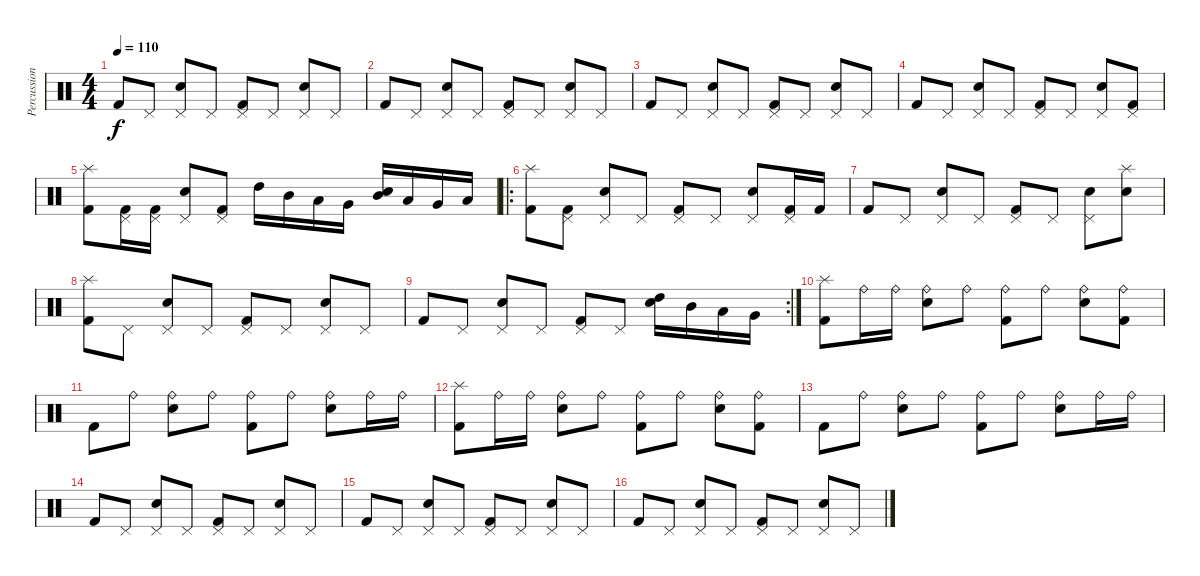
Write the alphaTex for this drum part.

\track ("Percussion" "Percussion") {instrument percussion}
\staff {score}
\articulation defaults
\ts (4 4)
\tempo 110
\clef neutral
\ks c "Kick (hit) 2".8{dy f} "Pedal Hi-Hat (hit)".8
("Pedal Hi-Hat (hit)" "Snare (hit) 2").8 "Pedal Hi-Hat (hit)".8 ("Pedal Hi-Hat (hit)" "Kick (hit) 2").8 "Pedal Hi-Hat (hit)".8 ("Pedal Hi-Hat (hit)" "Snare (hit) 2").8 "Pedal Hi-Hat (hit)".8 |
"Kick (hit) 2".8 "Pedal Hi-Hat (hit)".8 ("Pedal Hi-Hat (hit)" "Snare (hit) 2").8 "Pedal Hi-Hat (hit)".8 ("Pedal Hi-Hat (hit)" "Kick (hit) 2").8 "Pedal Hi-Hat (hit)".8 ("Pedal Hi-Hat (hit)" "Snare (hit) 2").8 "Pedal Hi-Hat (hit)".8 |
"Kick (hit) 2".8 "Pedal Hi-Hat (hit)".8 ("Pedal Hi-Hat (hit)" "Snare (hit) 2").8 "Pedal Hi-Hat (hit)".8 ("Pedal Hi-Hat (hit)" "Kick (hit) 2").8 "Pedal Hi-Hat (hit)".8 ("Pedal Hi-Hat (hit)" "Snare (hit) 2").8 "Pedal Hi-Hat (hit)".8 |
"Kick (hit) 2".8 "Pedal Hi-Hat (hit)".8 ("Pedal Hi-Hat (hit)" "Snare (hit) 2").8 "Pedal Hi-Hat (hit)".8 ("Pedal Hi-Hat (hit)" "Kick (hit) 2").8 "Pedal Hi-Hat (hit)".8 ("Pedal Hi-Hat (hit)" "Snare (hit) 2").8 ("Pedal Hi-Hat (hit)" "Kick (hit) 2").8 |
("Splash (hit)" "Kick (hit) 2").8 ("Pedal Hi-Hat (hit)" "Kick (hit) 2").16 ("Pedal Hi-Hat (hit)" "Kick (hit) 2").16 ("Pedal Hi-Hat (hit)" "Snare (hit) 2").8 ("Pedal Hi-Hat (hit)" "Kick (hit) 2").8 "High Tom (hit)".16 "Mid Tom (hit)".16 "Low Tom (hit)".16 "Very Low Tom (hit)".16 ("Mid Tom (hit)" "Snare (hit) 2").16 "Low Tom (hit)".16 "Very Low Tom (hit)".16 "Low Floor Tom (hit)".16 |
\ro
("Splash (hit)" "Kick (hit) 2").8 ("Pedal Hi-Hat (hit)" "Kick (hit) 2").8 ("Pedal Hi-Hat (hit)" "Snare (hit) 2").8 "Pedal Hi-Hat (hit)".8 ("Pedal Hi-Hat (hit)" "Kick (hit) 2").8 "Pedal Hi-Hat (hit)".8 ("Pedal Hi-Hat (hit)" "Snare (hit) 2").8 ("Pedal Hi-Hat (hit)" "Kick (hit) 2").16 "Kick (hit) 2".16 |
"Kick (hit) 2".8 "Pedal Hi-Hat (hit)".8 ("Pedal Hi-Hat (hit)" "Snare (hit) 2").8 "Pedal Hi-Hat (hit)".8 ("Pedal Hi-Hat (hit)" "Kick (hit) 2").8 "Pedal Hi-Hat (hit)".8 ("Pedal Hi-Hat (hit)" "Snare (hit) 2").8 ("Splash (hit)" "Snare (hit) 2").8 |
("Splash (hit)" "Kick (hit) 2").8 "Pedal Hi-Hat (hit)".8 ("Pedal Hi-Hat (hit)" "Snare (hit) 2").8 "Pedal Hi-Hat (hit)".8 ("Pedal Hi-Hat (hit)" "Kick (hit) 2").8 "Pedal Hi-Hat (hit)".8 ("Pedal Hi-Hat (hit)" "Snare (hit) 2").8 "Pedal Hi-Hat (hit)".8 |
\rc 2 "Kick (hit) 2".8 "Pedal Hi-Hat (hit)".8
("Pedal Hi-Hat (hit)" "Snare (hit) 2").8 "Pedal Hi-Hat (hit)".8 ("Pedal Hi-Hat (hit)" "Kick (hit) 2").8 "Pedal Hi-Hat (hit)".8 ("High Tom (hit)" "Snare (hit) 2").16 "Mid Tom (hit)".16 "Low Tom (hit)".16 "Very Low Tom (hit)".16 |
("Splash (hit)" "Kick (hit) 2").8 "Ride (bell)".16 "Ride (bell)".16 ("Ride (bell)" "Snare (hit) 2").8 "Ride (bell)".8 ("Ride (bell)" "Kick (hit) 2").8 "Ride (bell)".8 ("Ride (bell)" "Snare (hit) 2").8 ("Ride (bell)" "Kick (hit) 2").8 |
"Kick (hit) 2".8 "Ride (bell)".8 ("Ride (bell)" "Snare (hit) 2").8 "Ride (bell)".8 ("Ride (bell)" "Kick (hit) 2").8 "Ride (bell)".8 ("Ride (bell)" "Snare (hit) 2").8 "Ride (bell)".16 "Ride (bell)".16 |
("Splash (hit)" "Kick (hit) 2").8 "Ride (bell)".16 "Ride (bell)".16 ("Ride (bell)" "Snare (hit) 2").8 "Ride (bell)".8 ("Ride (bell)" "Kick (hit) 2").8 "Ride (bell)".8 ("Ride (bell)" "Snare (hit) 2").8 ("Ride (bell)" "Kick (hit) 2").8 |
"Kick (hit) 2".8 "Ride (bell)".8 ("Ride (bell)" "Snare (hit) 2").8 "Ride (bell)".8 ("Ride (bell)" "Kick (hit) 2").8 "Ride (bell)".8 ("Ride (bell)" "Snare (hit) 2").8 "Ride (bell)".16 "Ride (bell)".16 |
"Kick (hit) 2".8 "Pedal Hi-Hat (hit)".8 ("Pedal Hi-Hat (hit)" "Snare (hit) 2").8 "Pedal Hi-Hat (hit)".8 ("Pedal Hi-Hat (hit)" "Kick (hit) 2").8 "Pedal Hi-Hat (hit)".8 ("Pedal Hi-Hat (hit)" "Snare (hit) 2").8 "Pedal Hi-Hat (hit)".8 |
"Kick (hit) 2".8 "Pedal Hi-Hat (hit)".8 ("Pedal Hi-Hat (hit)" "Snare (hit) 2").8 "Pedal Hi-Hat (hit)".8 ("Pedal Hi-Hat (hit)" "Kick (hit) 2").8 "Pedal Hi-Hat (hit)".8 ("Pedal Hi-Hat (hit)" "Snare (hit) 2").8 "Pedal Hi-Hat (hit)".8 |
"Kick (hit) 2".8 "Pedal Hi-Hat (hit)".8 ("Pedal Hi-Hat (hit)" "Snare (hit) 2").8 "Pedal Hi-Hat (hit)".8 ("Pedal Hi-Hat (hit)" "Kick (hit) 2").8 "Pedal Hi-Hat (hit)".8 ("Pedal Hi-Hat (hit)" "Snare (hit) 2").8 "Pedal Hi-Hat (hit)".8
